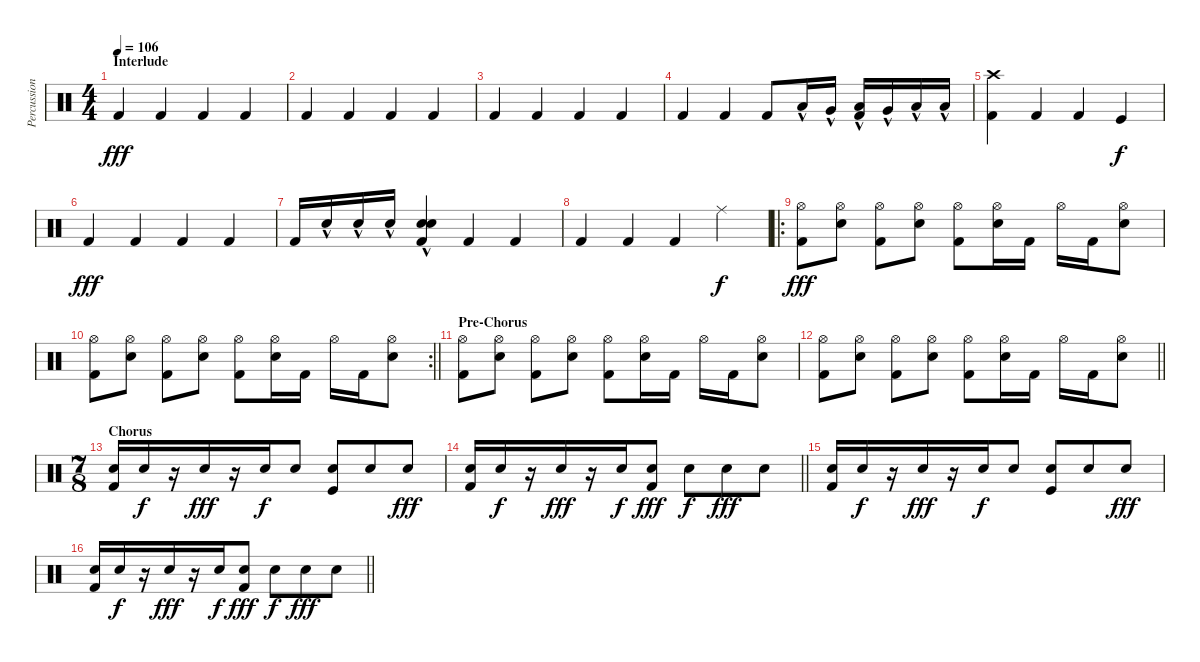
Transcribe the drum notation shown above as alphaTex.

\track ("Percussion 2" "Percussion") {instrument percussion}
\staff {score}
\articulation defaults
\ts (4 4)
\section ("" "Interlude")
\tempo 106
\clef neutral
\ks c "Kick (hit) 2".4{dy fff} "Kick (hit) 2".4 "Kick (hit) 2".4 "Kick (hit) 2".4
|
"Kick (hit) 2".4 "Kick (hit) 2".4 "Kick (hit) 2".4 "Kick (hit) 2".4 |
"Kick (hit) 2".4 "Kick (hit) 2".4 "Kick (hit) 2".4 "Kick (hit) 2".4 |
"Kick (hit) 2".4 "Kick (hit) 2".4 "Kick (hit) 2".8 "Low Tom (hit)"{hac}.16 "Very Low Tom (hit)"{hac}.16 ("Low Tom (hit)"{hac} "Kick (hit) 2").16 "Very Low Tom (hit)"{hac}.16 "Low Tom (hit)"{hac}.16 "Low Tom (hit)"{hac}.16 |
("Crash high (hit)" "Kick (hit) 2").4 "Kick (hit) 2".4 "Kick (hit) 2".4 "Kick (hit)".4{dy f} |
"Kick (hit) 2".4{dy fff} "Kick (hit) 2".4 "Kick (hit) 2".4 "Kick (hit) 2".4 |
"Kick (hit) 2".16 "Electric Snare (hit)"{hac}.16 "Electric Snare (hit)"{hac}.16 "Electric Snare (hit)"{hac}.16 ("Electric Snare (hit)"{hac} "Electric Snare (hit)"{hac} "Kick (hit) 2").4 "Kick (hit) 2".4 "Kick (hit) 2".4 |
"Kick (hit) 2".4 "Kick (hit) 2".4 "Kick (hit) 2".4 "Ride (middle)".4{dy f} |
\ro
("Hi-Hat (open)" "Kick (hit) 2").8{dy fff} ("Hi-Hat (open)" "Electric Snare (hit)").8 ("Hi-Hat (open)" "Kick (hit) 2").8 ("Hi-Hat (open)" "Electric Snare (hit)").8 ("Hi-Hat (open)" "Kick (hit) 2").8 ("Hi-Hat (open)" "Electric Snare (hit)").16 "Kick (hit) 2".16 "Hi-Hat (open)".16 "Kick (hit) 2".16 ("Hi-Hat (open)" "Electric Snare (hit)").8 |
\rc 2
\barLineRight lightlight
("Hi-Hat (open)" "Kick (hit) 2").8 ("Hi-Hat (open)" "Electric Snare (hit)").8 ("Hi-Hat (open)" "Kick (hit) 2").8 ("Hi-Hat (open)" "Electric Snare (hit)").8 ("Hi-Hat (open)" "Kick (hit) 2").8 ("Hi-Hat (open)" "Electric Snare (hit)").16 "Kick (hit) 2".16 "Hi-Hat (open)".16 "Kick (hit) 2".16 ("Hi-Hat (open)" "Electric Snare (hit)").8 |
\section ("" "Pre-Chorus")
("Hi-Hat (open)" "Kick (hit) 2").8 ("Hi-Hat (open)" "Electric Snare (hit)").8 ("Hi-Hat (open)" "Kick (hit) 2").8 ("Hi-Hat (open)" "Electric Snare (hit)").8 ("Hi-Hat (open)" "Kick (hit) 2").8 ("Hi-Hat (open)" "Electric Snare (hit)").16 "Kick (hit) 2".16 "Hi-Hat (open)".16 "Kick (hit) 2".16 ("Hi-Hat (open)" "Electric Snare (hit)").8 |
\barLineRight lightlight
("Hi-Hat (open)" "Kick (hit) 2").8 ("Hi-Hat (open)" "Electric Snare (hit)").8 ("Hi-Hat (open)" "Kick (hit) 2").8 ("Hi-Hat (open)" "Electric Snare (hit)").8 ("Hi-Hat (open)" "Kick (hit) 2").8 ("Hi-Hat (open)" "Electric Snare (hit)").16 "Kick (hit) 2".16 "Hi-Hat (open)".16 "Kick (hit) 2".16 ("Hi-Hat (open)" "Electric Snare (hit)").8 |
\ts (7 8)
\section ("" "Chorus")
("Snare (hit) 2" "Kick (hit) 2").16 "Snare (hit) 2".16{dy f} r.16 "Electric Snare (hit)".16{dy fff} r.16 "Snare (hit) 2".16{dy f} "Snare (hit) 2".8 ("Snare (hit) 2" "Kick (hit)").8 "Snare (hit) 2".8 "Electric Snare (hit)".8{dy fff} |
\barLineRight lightlight
("Snare (hit) 2" "Kick (hit) 2").16 "Snare (hit) 2".16{dy f} r.16 "Electric Snare (hit)".16{dy fff} r.16 "Snare (hit) 2".16{dy f} ("Snare (hit) 2" "Kick (hit) 2").8{dy fff} "Snare (hit) 2".8{dy f} "Electric Snare (hit)".8{dy fff} "Electric Snare (hit)".8 |
("Snare (hit) 2" "Kick (hit) 2").16 "Snare (hit) 2".16{dy f} r.16 "Electric Snare (hit)".16{dy fff} r.16 "Snare (hit) 2".16{dy f} "Snare (hit) 2".8 ("Snare (hit) 2" "Kick (hit)").8 "Snare (hit) 2".8 "Electric Snare (hit)".8{dy fff} |
\barLineRight lightlight
("Snare (hit) 2" "Kick (hit) 2").16 "Snare (hit) 2".16{dy f} r.16 "Electric Snare (hit)".16{dy fff} r.16 "Snare (hit) 2".16{dy f} ("Snare (hit) 2" "Kick (hit) 2").8{dy fff} "Snare (hit) 2".8{dy f} "Electric Snare (hit)".8{dy fff} "Electric Snare (hit)".8
